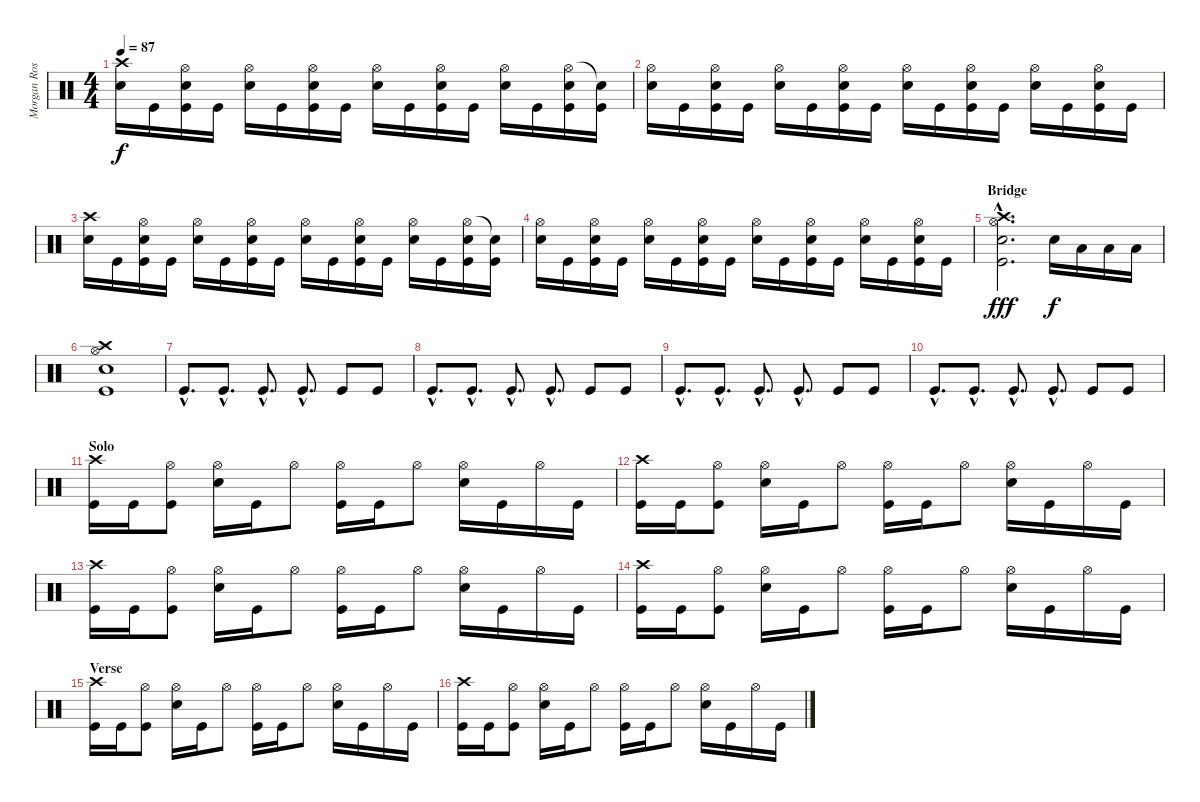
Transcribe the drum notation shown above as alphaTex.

\track ("Morgan Rose" "Morgan Ros") {instrument percussion}
\staff {score}
\articulation defaults
\ts (4 4)
\tempo 87
\clef neutral
\ks c
("Crash high (hit)" "Snare (hit) 2").16{dy f} "Kick (hit)".16 ("Hi-Hat (open)" "Snare (hit) 2" "Kick (hit)").16 "Kick (hit)".16 ("Hi-Hat (open)" "Snare (hit) 2").16 "Kick (hit)".16 ("Hi-Hat (open)" "Snare (hit) 2" "Kick (hit)").16 "Kick (hit)".16 ("Hi-Hat (open)" "Snare (hit) 2").16 "Kick (hit)".16 ("Hi-Hat (open)" "Snare (hit) 2" "Kick (hit)").16 "Kick (hit)".16 ("Hi-Hat (open)" "Snare (hit) 2").16 "Kick (hit)".16 ("Hi-Hat (open)" "Snare (hit) 2" "Kick (hit)").16 ("Snare (hit)"{t} "Kick (hit)").16 |
("Hi-Hat (open)" "Snare (hit) 2").16 "Kick (hit)".16 ("Hi-Hat (open)" "Snare (hit) 2" "Kick (hit)").16 "Kick (hit)".16 ("Hi-Hat (open)" "Snare (hit) 2").16 "Kick (hit)".16 ("Hi-Hat (open)" "Snare (hit) 2" "Kick (hit)").16 "Kick (hit)".16 ("Hi-Hat (open)" "Snare (hit) 2").16 "Kick (hit)".16 ("Hi-Hat (open)" "Snare (hit) 2" "Kick (hit)").16 "Kick (hit)".16 ("Hi-Hat (open)" "Snare (hit) 2").16 "Kick (hit)".16 ("Hi-Hat (open)" "Snare (hit) 2" "Kick (hit)").16 "Kick (hit)".16 |
("Crash high (hit)" "Snare (hit) 2").16 "Kick (hit)".16 ("Hi-Hat (open)" "Snare (hit) 2" "Kick (hit)").16 "Kick (hit)".16 ("Hi-Hat (open)" "Snare (hit) 2").16 "Kick (hit)".16 ("Hi-Hat (open)" "Snare (hit) 2" "Kick (hit)").16 "Kick (hit)".16 ("Hi-Hat (open)" "Snare (hit) 2").16 "Kick (hit)".16 ("Hi-Hat (open)" "Snare (hit) 2" "Kick (hit)").16 "Kick (hit)".16 ("Hi-Hat (open)" "Snare (hit) 2").16 "Kick (hit)".16 ("Hi-Hat (open)" "Snare (hit) 2" "Kick (hit)").16 ("Snare (hit)"{t} "Kick (hit)").16 |
("Hi-Hat (open)" "Snare (hit) 2").16 "Kick (hit)".16 ("Hi-Hat (open)" "Snare (hit) 2" "Kick (hit)").16 "Kick (hit)".16 ("Hi-Hat (open)" "Snare (hit) 2").16 "Kick (hit)".16 ("Hi-Hat (open)" "Snare (hit) 2" "Kick (hit)").16 "Kick (hit)".16 ("Hi-Hat (open)" "Snare (hit) 2").16 "Kick (hit)".16 ("Hi-Hat (open)" "Snare (hit) 2" "Kick (hit)").16 "Kick (hit)".16 ("Hi-Hat (open)" "Snare (hit) 2").16 "Kick (hit)".16 ("Hi-Hat (open)" "Snare (hit) 2" "Kick (hit)").16 "Kick (hit)".16 |
\section ("" "Bridge")
("Crash high (hit)"{hac} "Hi-Hat (open)"{hac} "Snare (hit) 2"{hac} "Kick (hit)"{hac}).2{d dy fff} "Snare (hit) 2".16{dy f} "Low Tom (hit)".16 "Low Tom (hit)".16 "Low Tom (hit)".16 |
("Crash high (hit)" "Hi-Hat (open)" "Snare (hit) 2" "Kick (hit)").1 |
"Kick (hit)"{hac}.8{d} "Kick (hit)"{hac}.8{d} "Kick (hit)"{hac}.8{d} "Kick (hit)"{hac}.8{d} "Kick (hit)".8 "Kick (hit)".8 |
"Kick (hit)"{hac}.8{d} "Kick (hit)"{hac}.8{d} "Kick (hit)"{hac}.8{d} "Kick (hit)"{hac}.8{d} "Kick (hit)".8 "Kick (hit)".8 |
"Kick (hit)"{hac}.8{d} "Kick (hit)"{hac}.8{d} "Kick (hit)"{hac}.8{d} "Kick (hit)"{hac}.8{d} "Kick (hit)".8 "Kick (hit)".8 |
"Kick (hit)"{hac}.8{d} "Kick (hit)"{hac}.8{d} "Kick (hit)"{hac}.8{d} "Kick (hit)"{hac}.8{d} "Kick (hit)".8 "Kick (hit)".8 |
\section ("" "Solo")
("Crash high (hit)" "Kick (hit)").16 "Kick (hit)".16 ("Hi-Hat (open)" "Kick (hit)").8 ("Hi-Hat (open)" "Snare (hit) 2").16 "Kick (hit)".16 "Hi-Hat (open)".8 ("Hi-Hat (open)" "Kick (hit)").16 "Kick (hit)".16 "Hi-Hat (open)".8 ("Hi-Hat (open)" "Snare (hit) 2").16 "Kick (hit)".16 "Hi-Hat (open)".16 "Kick (hit)".16 |
("Crash high (hit)" "Kick (hit)").16 "Kick (hit)".16 ("Hi-Hat (open)" "Kick (hit)").8 ("Hi-Hat (open)" "Snare (hit) 2").16 "Kick (hit)".16 "Hi-Hat (open)".8 ("Hi-Hat (open)" "Kick (hit)").16 "Kick (hit)".16 "Hi-Hat (open)".8 ("Hi-Hat (open)" "Snare (hit) 2").16 "Kick (hit)".16 "Hi-Hat (open)".16 "Kick (hit)".16 |
("Crash high (hit)" "Kick (hit)").16 "Kick (hit)".16 ("Hi-Hat (open)" "Kick (hit)").8 ("Hi-Hat (open)" "Snare (hit) 2").16 "Kick (hit)".16 "Hi-Hat (open)".8 ("Hi-Hat (open)" "Kick (hit)").16 "Kick (hit)".16 "Hi-Hat (open)".8 ("Hi-Hat (open)" "Snare (hit) 2").16 "Kick (hit)".16 "Hi-Hat (open)".16 "Kick (hit)".16 |
("Crash high (hit)" "Kick (hit)").16 "Kick (hit)".16 ("Hi-Hat (open)" "Kick (hit)").8 ("Hi-Hat (open)" "Snare (hit) 2").16 "Kick (hit)".16 "Hi-Hat (open)".8 ("Hi-Hat (open)" "Kick (hit)").16 "Kick (hit)".16 "Hi-Hat (open)".8 ("Hi-Hat (open)" "Snare (hit) 2").16 "Kick (hit)".16 "Hi-Hat (open)".16 "Kick (hit)".16 |
\section ("" "Verse")
("Crash high (hit)" "Kick (hit)").16 "Kick (hit)".16 ("Hi-Hat (open)" "Kick (hit)").8 ("Hi-Hat (open)" "Snare (hit) 2").16 "Kick (hit)".16 "Hi-Hat (open)".8 ("Hi-Hat (open)" "Kick (hit)").16 "Kick (hit)".16 "Hi-Hat (open)".8 ("Hi-Hat (open)" "Snare (hit) 2").16 "Kick (hit)".16 "Hi-Hat (open)".16 "Kick (hit)".16 |
("Crash high (hit)" "Kick (hit)").16 "Kick (hit)".16 ("Hi-Hat (open)" "Kick (hit)").8 ("Hi-Hat (open)" "Snare (hit) 2").16 "Kick (hit)".16 "Hi-Hat (open)".8 ("Hi-Hat (open)" "Kick (hit)").16 "Kick (hit)".16 "Hi-Hat (open)".8 ("Hi-Hat (open)" "Snare (hit) 2").16 "Kick (hit)".16 "Hi-Hat (open)".16 "Kick (hit)".16
